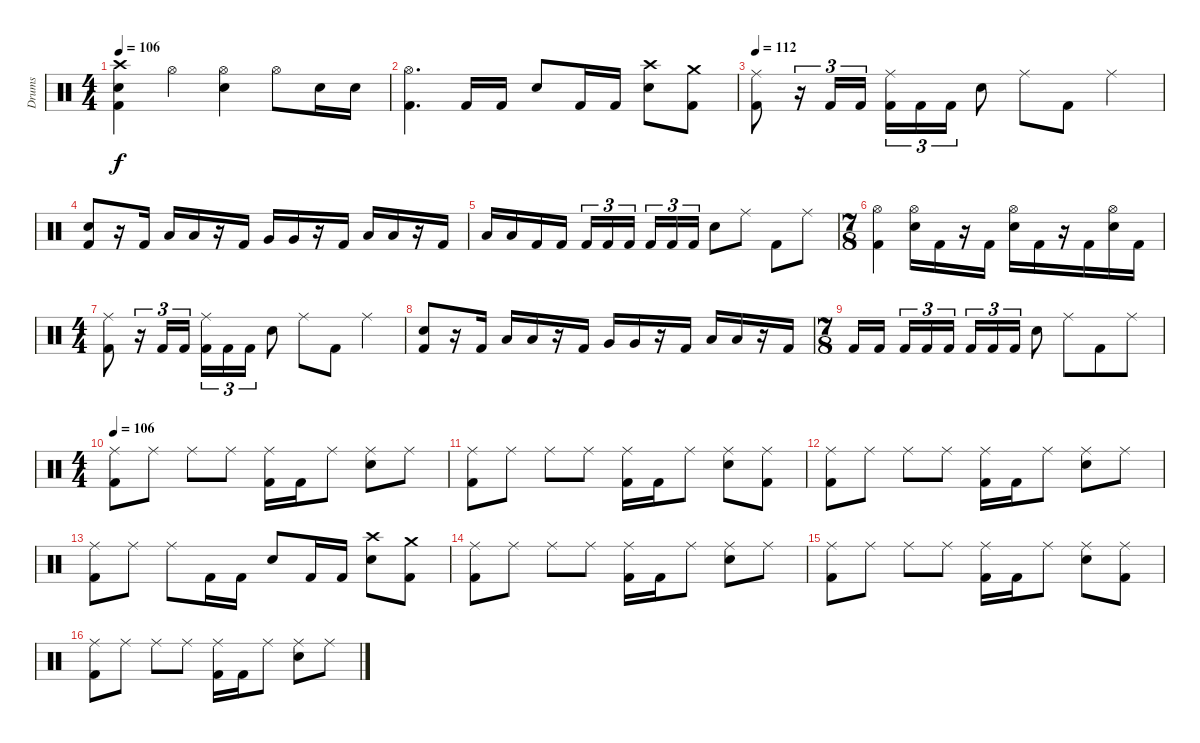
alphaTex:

\track ("Drums" "Drums") {instrument percussion}
\staff {score}
\articulation defaults
\ts (4 4)
\tempo 106
\clef neutral
\ks c
("Crash high (hit)" "Electric Snare (hit)" "Kick (hit) 2").4{dy f} "Hi-Hat (open)".4 ("Hi-Hat (open)" "Electric Snare (hit)").4 "Hi-Hat (open)".8 "Electric Snare (hit)".16 "Electric Snare (hit)".16 |
("Hi-Hat (open)" "Kick (hit) 2").4{d} "Kick (hit) 2".16 "Kick (hit) 2".16 "Electric Snare (hit)".8 "Kick (hit) 2".16 "Kick (hit) 2".16 ("Crash high (hit)" "Electric Snare (hit)").8 ("Crash medium (hit)" "Kick (hit) 2").8 |
\tempo 112
("Ride (middle)" "Kick (hit) 2").8 r.16{tu (3 2)} "Kick (hit) 2".16{tu (3 2)} "Kick (hit) 2".16{tu (3 2)} ("Ride (middle)" "Kick (hit) 2").16{tu (3 2)} "Kick (hit) 2".16{tu (3 2)} "Kick (hit) 2".16{tu (3 2)} "Electric Snare (hit)".8 "Ride (middle)".8 "Kick (hit) 2".8 "Ride (middle)".4 |
("Electric Snare (hit)" "Kick (hit) 2").8 r.16 "Kick (hit) 2".16 "Low Tom (hit)".16 "Low Tom (hit)".16 r.16 "Kick (hit) 2".16 "Very Low Tom (hit)".16 "Very Low Tom (hit)".16 r.16 "Kick (hit) 2".16 "Low Floor Tom (hit)".16 "Low Floor Tom (hit)".16 r.16 "Kick (hit) 2".16 |
"Low Floor Tom (hit)".16 "Low Floor Tom (hit)".16 "Kick (hit) 2".16 "Kick (hit) 2".16 "Kick (hit) 2".16{tu (3 2)} "Kick (hit) 2".16{tu (3 2)} "Kick (hit) 2".16{tu (3 2) beam splitsecondary} "Kick (hit) 2".16{tu (3 2)} "Kick (hit) 2".16{tu (3 2)} "Kick (hit) 2".16{tu (3 2)} "Electric Snare (hit)".8 "Ride (middle)".8 "Kick (hit) 2".8 "Ride (middle)".8 |
\ts (7 8)
("Hi-Hat (open)" "Kick (hit) 2").4 ("Hi-Hat (open)" "Electric Snare (hit)").16 "Kick (hit) 2".16 r.16 "Kick (hit) 2".16 ("Hi-Hat (open)" "Electric Snare (hit)").16 "Kick (hit) 2".16 r.16 "Kick (hit) 2".16 ("Hi-Hat (open)" "Electric Snare (hit)").16 "Kick (hit) 2".16 |
\ts (4 4)
("Ride (middle)" "Kick (hit) 2").8 r.16{tu (3 2)} "Kick (hit) 2".16{tu (3 2)} "Kick (hit) 2".16{tu (3 2)} ("Ride (middle)" "Kick (hit) 2").16{tu (3 2)} "Kick (hit) 2".16{tu (3 2)} "Kick (hit) 2".16{tu (3 2)} "Electric Snare (hit)".8 "Ride (middle)".8 "Kick (hit) 2".8 "Ride (middle)".4 |
("Electric Snare (hit)" "Kick (hit) 2").8 r.16 "Kick (hit) 2".16 "Low Tom (hit)".16 "Low Tom (hit)".16 r.16 "Kick (hit) 2".16 "Very Low Tom (hit)".16 "Very Low Tom (hit)".16 r.16 "Kick (hit) 2".16 "Low Floor Tom (hit)".16 "Low Floor Tom (hit)".16 r.16 "Kick (hit) 2".16 |
\ts (7 8)
"Kick (hit) 2".16 "Kick (hit) 2".16 "Kick (hit) 2".16{tu (3 2)} "Kick (hit) 2".16{tu (3 2)} "Kick (hit) 2".16{tu (3 2)} "Kick (hit) 2".16{tu (3 2)} "Kick (hit) 2".16{tu (3 2)} "Kick (hit) 2".16{tu (3 2)} "Electric Snare (hit)".8 "Ride (middle)".8 "Kick (hit) 2".8 "Ride (middle)".8 |
\ts (4 4)
\tempo 106
("Ride (middle)" "Kick (hit) 2").8 "Ride (middle)".8 "Ride (middle)".8 "Ride (middle)".8 ("Ride (middle)" "Kick (hit) 2").16 "Kick (hit) 2".16 "Ride (middle)".8 ("Ride (middle)" "Electric Snare (hit)").8 "Ride (middle)".8 |
("Ride (middle)" "Kick (hit) 2").8 "Ride (middle)".8 "Ride (middle)".8 "Ride (middle)".8 ("Ride (middle)" "Kick (hit) 2").16 "Kick (hit) 2".16 "Ride (middle)".8 ("Ride (middle)" "Electric Snare (hit)").8 ("Ride (middle)" "Kick (hit) 2").8 |
("Ride (middle)" "Kick (hit) 2").8 "Ride (middle)".8 "Ride (middle)".8 "Ride (middle)".8 ("Ride (middle)" "Kick (hit) 2").16 "Kick (hit) 2".16 "Ride (middle)".8 ("Ride (middle)" "Electric Snare (hit)").8 "Ride (middle)".8 |
("Ride (middle)" "Kick (hit) 2").8 "Ride (middle)".8 "Ride (middle)".8 "Kick (hit) 2".16 "Kick (hit) 2".16 "Electric Snare (hit)".8 "Kick (hit) 2".16 "Kick (hit) 2".16 ("Crash high (hit)" "Electric Snare (hit)").8 ("Crash medium (hit)" "Kick (hit) 2").8 |
("Ride (middle)" "Kick (hit) 2").8 "Ride (middle)".8 "Ride (middle)".8 "Ride (middle)".8 ("Ride (middle)" "Kick (hit) 2").16 "Kick (hit) 2".16 "Ride (middle)".8 ("Ride (middle)" "Electric Snare (hit)").8 "Ride (middle)".8 |
("Ride (middle)" "Kick (hit) 2").8 "Ride (middle)".8 "Ride (middle)".8 "Ride (middle)".8 ("Ride (middle)" "Kick (hit) 2").16 "Kick (hit) 2".16 "Ride (middle)".8 ("Ride (middle)" "Electric Snare (hit)").8 ("Ride (middle)" "Kick (hit) 2").8 |
("Ride (middle)" "Kick (hit) 2").8 "Ride (middle)".8 "Ride (middle)".8 "Ride (middle)".8 ("Ride (middle)" "Kick (hit) 2").16 "Kick (hit) 2".16 "Ride (middle)".8 ("Ride (middle)" "Electric Snare (hit)").8 "Ride (middle)".8
